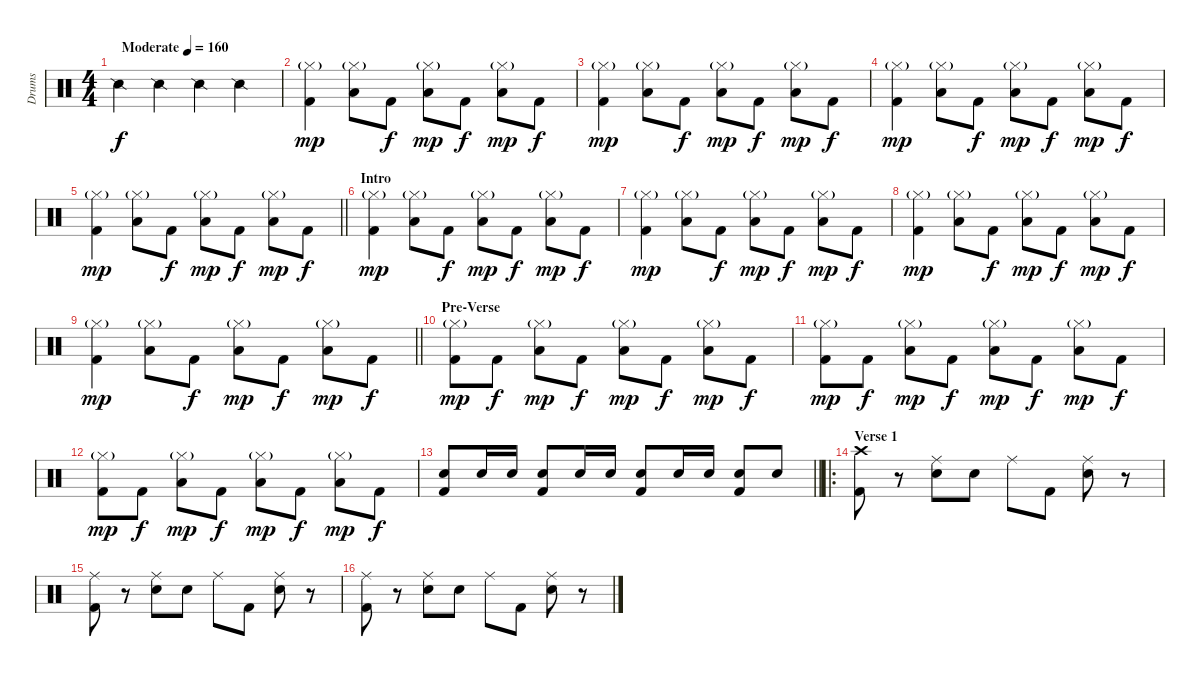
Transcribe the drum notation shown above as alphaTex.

\track ("Drums" "Drums") {instrument percussion}
\staff {score}
\articulation defaults
\ts (4 4)
\tempo (160 "Moderate")
\clef neutral
\ks c "Snare (side stick) 2".4{dy f} "Snare (side stick) 2".4 "Snare (side stick) 2".4 "Snare (side stick) 2".4
|
("Hi-Hat (closed)"{g} "Kick (hit) 2").4{dy mp} ("Hi-Hat (closed)"{g} "Low Floor Tom (hit)").8 "Kick (hit) 2".8{dy f} ("Hi-Hat (closed)"{g} "Low Tom (hit)").8{dy mp} "Kick (hit) 2".8{dy f} ("Hi-Hat (closed)"{g} "Low Floor Tom (hit)").8{dy mp} "Kick (hit) 2".8{dy f} |
("Hi-Hat (closed)"{g} "Kick (hit) 2").4{dy mp} ("Hi-Hat (closed)"{g} "Low Floor Tom (hit)").8 "Kick (hit) 2".8{dy f} ("Hi-Hat (closed)"{g} "Low Tom (hit)").8{dy mp} "Kick (hit) 2".8{dy f} ("Hi-Hat (closed)"{g} "Low Floor Tom (hit)").8{dy mp} "Kick (hit) 2".8{dy f} |
("Hi-Hat (closed)"{g} "Kick (hit) 2").4{dy mp} ("Hi-Hat (closed)"{g} "Low Floor Tom (hit)").8 "Kick (hit) 2".8{dy f} ("Hi-Hat (closed)"{g} "Low Tom (hit)").8{dy mp} "Kick (hit) 2".8{dy f} ("Hi-Hat (closed)"{g} "Low Floor Tom (hit)").8{dy mp} "Kick (hit) 2".8{dy f} |
\barLineRight lightlight
("Hi-Hat (closed)"{g} "Kick (hit) 2").4{dy mp} ("Hi-Hat (closed)"{g} "Low Floor Tom (hit)").8 "Kick (hit) 2".8{dy f} ("Hi-Hat (closed)"{g} "Low Tom (hit)").8{dy mp} "Kick (hit) 2".8{dy f} ("Hi-Hat (closed)"{g} "Low Floor Tom (hit)").8{dy mp} "Kick (hit) 2".8{dy f} |
\section ("" "Intro")
("Hi-Hat (closed)"{g} "Kick (hit) 2").4{dy mp} ("Hi-Hat (closed)"{g} "Low Floor Tom (hit)").8 "Kick (hit) 2".8{dy f} ("Hi-Hat (closed)"{g} "Low Tom (hit)").8{dy mp} "Kick (hit) 2".8{dy f} ("Hi-Hat (closed)"{g} "Low Floor Tom (hit)").8{dy mp} "Kick (hit) 2".8{dy f} |
("Hi-Hat (closed)"{g} "Kick (hit) 2").4{dy mp} ("Hi-Hat (closed)"{g} "Low Floor Tom (hit)").8 "Kick (hit) 2".8{dy f} ("Hi-Hat (closed)"{g} "Low Tom (hit)").8{dy mp} "Kick (hit) 2".8{dy f} ("Hi-Hat (closed)"{g} "Low Floor Tom (hit)").8{dy mp} "Kick (hit) 2".8{dy f} |
("Hi-Hat (closed)"{g} "Kick (hit) 2").4{dy mp} ("Hi-Hat (closed)"{g} "Low Floor Tom (hit)").8 "Kick (hit) 2".8{dy f} ("Hi-Hat (closed)"{g} "Low Tom (hit)").8{dy mp} "Kick (hit) 2".8{dy f} ("Hi-Hat (closed)"{g} "Low Floor Tom (hit)").8{dy mp} "Kick (hit) 2".8{dy f} |
\barLineRight lightlight
("Hi-Hat (closed)"{g} "Kick (hit) 2").4{dy mp} ("Hi-Hat (closed)"{g} "Low Floor Tom (hit)").8 "Kick (hit) 2".8{dy f} ("Hi-Hat (closed)"{g} "Low Tom (hit)").8{dy mp} "Kick (hit) 2".8{dy f} ("Hi-Hat (closed)"{g} "Low Floor Tom (hit)").8{dy mp} "Kick (hit) 2".8{dy f} |
\section ("" "Pre-Verse")
("Hi-Hat (closed)"{g} "Kick (hit) 2").8{dy mp} "Kick (hit) 2".8{dy f} ("Hi-Hat (closed)"{g} "Low Floor Tom (hit)").8{dy mp} "Kick (hit) 2".8{dy f} ("Hi-Hat (closed)"{g} "Low Tom (hit)").8{dy mp} "Kick (hit) 2".8{dy f} ("Hi-Hat (closed)"{g} "Low Floor Tom (hit)").8{dy mp} "Kick (hit) 2".8{dy f} |
("Hi-Hat (closed)"{g} "Kick (hit) 2").8{dy mp} "Kick (hit) 2".8{dy f} ("Hi-Hat (closed)"{g} "Low Floor Tom (hit)").8{dy mp} "Kick (hit) 2".8{dy f} ("Hi-Hat (closed)"{g} "Low Tom (hit)").8{dy mp} "Kick (hit) 2".8{dy f} ("Hi-Hat (closed)"{g} "Low Floor Tom (hit)").8{dy mp} "Kick (hit) 2".8{dy f} |
("Hi-Hat (closed)"{g} "Kick (hit) 2").8{dy mp} "Kick (hit) 2".8{dy f} ("Hi-Hat (closed)"{g} "Low Floor Tom (hit)").8{dy mp} "Kick (hit) 2".8{dy f} ("Hi-Hat (closed)"{g} "Low Tom (hit)").8{dy mp} "Kick (hit) 2".8{dy f} ("Hi-Hat (closed)"{g} "Low Floor Tom (hit)").8{dy mp} "Kick (hit) 2".8{dy f} |
\barLineRight lightlight
("Snare (hit) 2" "Kick (hit) 2").8 "Snare (hit) 2".16 "Snare (hit) 2".16 ("Snare (hit) 2" "Kick (hit) 2").8 "Snare (hit) 2".16 "Snare (hit) 2".16 ("Snare (hit) 2" "Kick (hit) 2").8 "Snare (hit) 2".16 "Snare (hit) 2".16 ("Snare (hit) 2" "Kick (hit) 2").8 "Snare (hit) 2".8 |
\ro
\section ("" "Verse 1")
("Crash high (hit)" "Kick (hit) 2").8 r.8 ("Ride (middle)" "Snare (hit) 2").8 "Snare (hit) 2".8 "Ride (middle)".8 "Kick (hit) 2".8 ("Ride (middle)" "Snare (hit) 2").8 r.8 |
("Ride (middle)" "Kick (hit) 2").8 r.8 ("Ride (middle)" "Snare (hit) 2").8 "Snare (hit) 2".8 "Ride (middle)".8 "Kick (hit) 2".8 ("Ride (middle)" "Snare (hit) 2").8 r.8 |
("Ride (middle)" "Kick (hit) 2").8 r.8 ("Ride (middle)" "Snare (hit) 2").8 "Snare (hit) 2".8 "Ride (middle)".8 "Kick (hit) 2".8 ("Ride (middle)" "Snare (hit) 2").8 r.8
